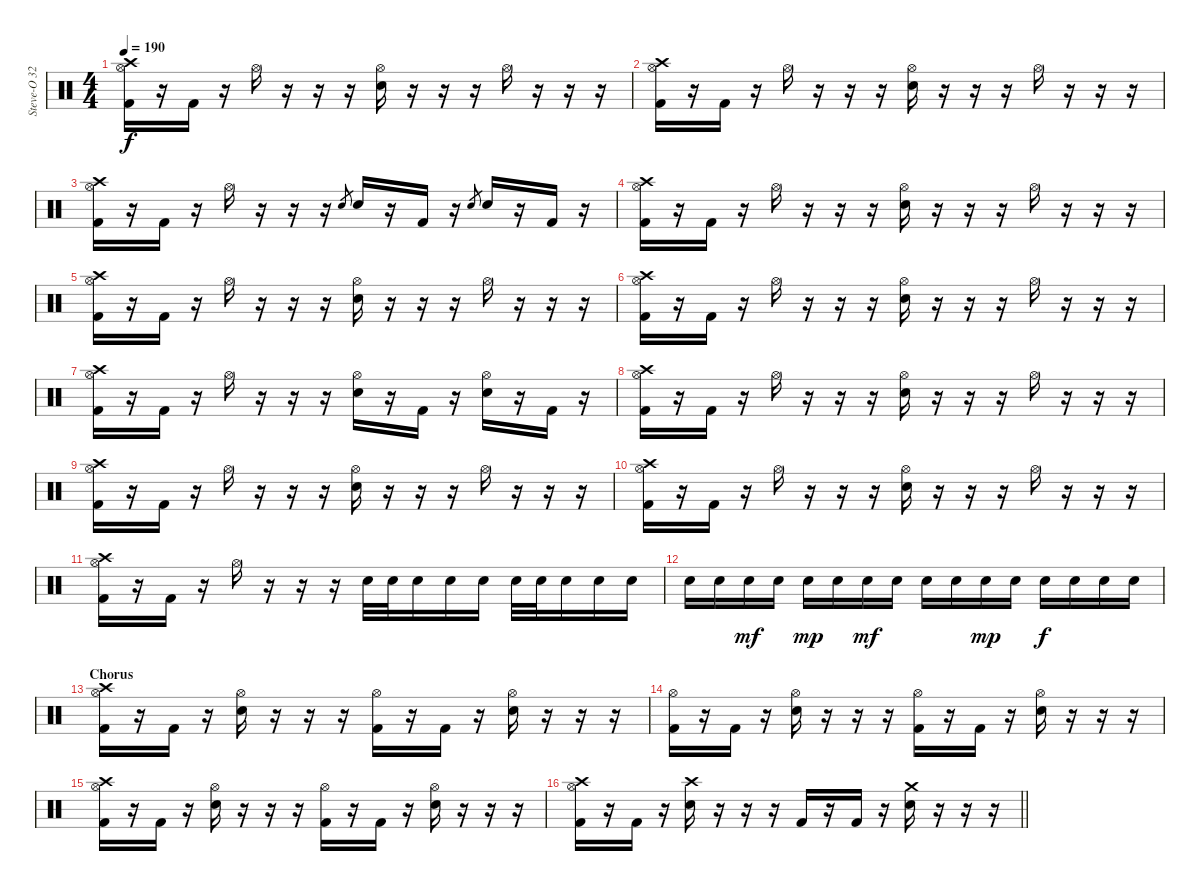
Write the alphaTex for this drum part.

\track ("Steve-O 32 ( Drums )" "Steve-O 32") {instrument percussion}
\staff {score}
\articulation defaults
\ts (4 4)
\tempo 190
\clef neutral
\ks c
("Hi-Hat (open)" "Crash high (hit)" "Kick (hit) 2").16{dy f} r.16 "Kick (hit) 2".16 r.16 "Hi-Hat (open)".16 r.16 r.16 r.16 ("Hi-Hat (open)" "Snare (hit) 2").16 r.16 r.16 r.16 "Hi-Hat (open)".16 r.16 r.16 r.16 |
("Hi-Hat (open)" "Crash high (hit)" "Kick (hit) 2").16 r.16 "Kick (hit) 2".16 r.16 "Hi-Hat (open)".16 r.16 r.16 r.16 ("Hi-Hat (open)" "Snare (hit) 2").16 r.16 r.16 r.16 "Hi-Hat (open)".16 r.16 r.16 r.16 |
("Hi-Hat (open)" "Crash high (hit)" "Kick (hit) 2").16 r.16 "Kick (hit) 2".16 r.16 "Hi-Hat (open)".16 r.16 r.16 r.16 "Snare (hit) 2".8{gr} "Snare (hit) 2".16 r.16 "Kick (hit) 2".16 r.16 "Snare (hit) 2".8{gr} "Snare (hit) 2".16 r.16 "Kick (hit) 2".16 r.16 |
("Hi-Hat (open)" "Crash high (hit)" "Kick (hit) 2").16 r.16 "Kick (hit) 2".16 r.16 "Hi-Hat (open)".16 r.16 r.16 r.16 ("Hi-Hat (open)" "Snare (hit) 2").16 r.16 r.16 r.16 "Hi-Hat (open)".16 r.16 r.16 r.16 |
("Hi-Hat (open)" "Crash high (hit)" "Kick (hit) 2").16 r.16 "Kick (hit) 2".16 r.16 "Hi-Hat (open)".16 r.16 r.16 r.16 ("Hi-Hat (open)" "Snare (hit) 2").16 r.16 r.16 r.16 "Hi-Hat (open)".16 r.16 r.16 r.16 |
("Hi-Hat (open)" "Crash high (hit)" "Kick (hit) 2").16 r.16 "Kick (hit) 2".16 r.16 "Hi-Hat (open)".16 r.16 r.16 r.16 ("Hi-Hat (open)" "Snare (hit) 2").16 r.16 r.16 r.16 "Hi-Hat (open)".16 r.16 r.16 r.16 |
("Hi-Hat (open)" "Crash high (hit)" "Kick (hit) 2").16 r.16 "Kick (hit) 2".16 r.16 "Hi-Hat (open)".16 r.16 r.16 r.16 ("Hi-Hat (open)" "Snare (hit) 2").16 r.16 "Kick (hit) 2".16 r.16 ("Hi-Hat (open)" "Snare (hit) 2").16 r.16 "Kick (hit) 2".16 r.16 |
("Hi-Hat (open)" "Crash high (hit)" "Kick (hit) 2").16 r.16 "Kick (hit) 2".16 r.16 "Hi-Hat (open)".16 r.16 r.16 r.16 ("Hi-Hat (open)" "Snare (hit) 2").16 r.16 r.16 r.16 "Hi-Hat (open)".16 r.16 r.16 r.16 |
("Hi-Hat (open)" "Crash high (hit)" "Kick (hit) 2").16 r.16 "Kick (hit) 2".16 r.16 "Hi-Hat (open)".16 r.16 r.16 r.16 ("Hi-Hat (open)" "Snare (hit) 2").16 r.16 r.16 r.16 "Hi-Hat (open)".16 r.16 r.16 r.16 |
("Hi-Hat (open)" "Crash high (hit)" "Kick (hit) 2").16 r.16 "Kick (hit) 2".16 r.16 "Hi-Hat (open)".16 r.16 r.16 r.16 ("Hi-Hat (open)" "Snare (hit) 2").16 r.16 r.16 r.16 "Hi-Hat (open)".16 r.16 r.16 r.16 |
("Hi-Hat (open)" "Crash high (hit)" "Kick (hit) 2").16 r.16 "Kick (hit) 2".16 r.16 "Hi-Hat (open)".16 r.16 r.16 r.16 "Snare (hit) 2".32 "Snare (hit) 2".32 "Snare (hit) 2".16 "Snare (hit) 2".16 "Snare (hit) 2".16 "Snare (hit) 2".32 "Snare (hit) 2".32 "Snare (hit) 2".16 "Snare (hit) 2".16 "Snare (hit) 2".16 |
"Snare (hit) 2".16 "Snare (hit) 2".16 "Snare (hit) 2".16{dy mf} "Snare (hit) 2".16 "Snare (hit) 2".16{dy mp} "Snare (hit) 2".16 "Snare (hit) 2".16{dy mf} "Snare (hit) 2".16 "Snare (hit) 2".16 "Snare (hit) 2".16 "Snare (hit) 2".16{dy mp} "Snare (hit) 2".16 "Snare (hit) 2".16{dy f} "Snare (hit) 2".16 "Snare (hit) 2".16 "Snare (hit) 2".16 |
\section ("" "Chorus")
("Hi-Hat (open)" "Crash high (hit)" "Kick (hit) 2").16 r.16 "Kick (hit) 2".16 r.16 ("Hi-Hat (open)" "Snare (hit) 2").16 r.16 r.16 r.16 ("Hi-Hat (open)" "Kick (hit) 2").16 r.16 "Kick (hit) 2".16 r.16 ("Hi-Hat (open)" "Snare (hit) 2").16 r.16 r.16 r.16 |
("Hi-Hat (open)" "Kick (hit) 2").16 r.16 "Kick (hit) 2".16 r.16 ("Hi-Hat (open)" "Snare (hit) 2").16 r.16 r.16 r.16 ("Hi-Hat (open)" "Kick (hit) 2").16 r.16 "Kick (hit) 2".16 r.16 ("Hi-Hat (open)" "Snare (hit) 2").16 r.16 r.16 r.16 |
("Hi-Hat (open)" "Crash high (hit)" "Kick (hit) 2").16 r.16 "Kick (hit) 2".16 r.16 ("Hi-Hat (open)" "Snare (hit) 2").16 r.16 r.16 r.16 ("Hi-Hat (open)" "Kick (hit) 2").16 r.16 "Kick (hit) 2".16 r.16 ("Hi-Hat (open)" "Snare (hit) 2").16 r.16 r.16 r.16 |
\barLineRight lightlight
("Hi-Hat (open)" "Crash high (hit)" "Kick (hit) 2").16 r.16 "Kick (hit) 2".16 r.16 ("Crash high (hit)" "Snare (hit) 2").16 r.16 r.16 r.16 "Kick (hit) 2".16 r.16 "Kick (hit) 2".16 r.16 ("Crash medium (hit)" "Snare (hit) 2").16 r.16 r.16 r.16
